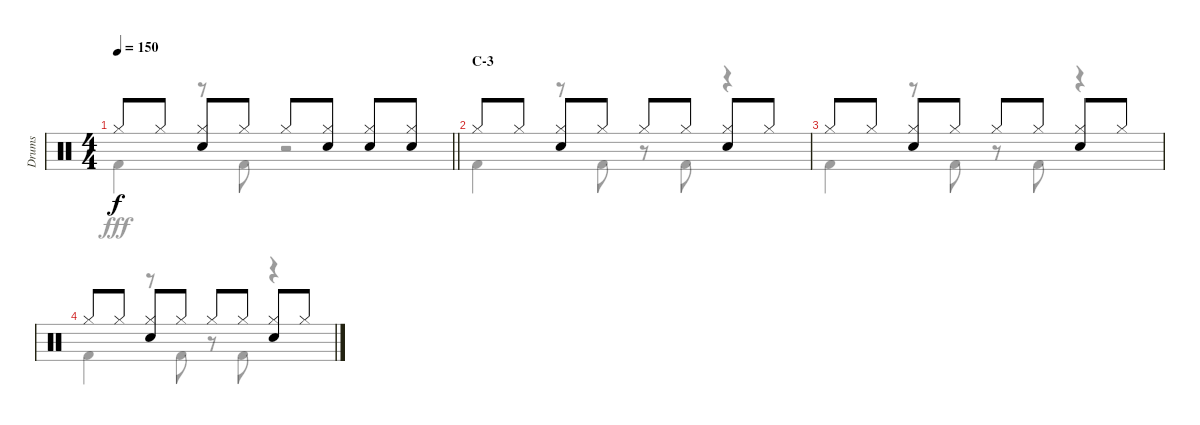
\track ("Drums" "Drums") {instrument percussion}
\staff {score}
\articulation defaults
\voice
\ts (4 4)
\tempo 150
\clef neutral
\barLineRight lightlight
\ks c "Hi-Hat (closed)".8{dy f} "Hi-Hat (closed)".8
("Hi-Hat (closed)" "Electric Snare (hit)").8 "Hi-Hat (closed)".8 "Hi-Hat (closed)".8 ("Hi-Hat (closed)" "Electric Snare (hit)").8 ("Hi-Hat (closed)" "Electric Snare (hit)").8 ("Hi-Hat (closed)" "Electric Snare (hit)").8 |
\section ("" "C-3")
"Hi-Hat (closed)".8 "Hi-Hat (closed)".8 ("Hi-Hat (closed)" "Electric Snare (hit)").8 "Hi-Hat (closed)".8 "Hi-Hat (closed)".8 "Hi-Hat (closed)".8 ("Hi-Hat (closed)" "Electric Snare (hit)").8 "Hi-Hat (closed)".8 |
"Hi-Hat (closed)".8 "Hi-Hat (closed)".8 ("Hi-Hat (closed)" "Electric Snare (hit)").8 "Hi-Hat (closed)".8 "Hi-Hat (closed)".8 "Hi-Hat (closed)".8 ("Hi-Hat (closed)" "Electric Snare (hit)").8 "Hi-Hat (closed)".8 |
"Hi-Hat (closed)".8 "Hi-Hat (closed)".8 ("Hi-Hat (closed)" "Electric Snare (hit)").8 "Hi-Hat (closed)".8 "Hi-Hat (closed)".8 "Hi-Hat (closed)".8 ("Hi-Hat (closed)" "Electric Snare (hit)").8 "Hi-Hat (closed)".8
\voice
\clef neutral
\ottava regular
\simile none
\barLineRight lightlight
\ks c "Kick (hit) 2".4{dy fff}
r.8 "Kick (hit) 2".8 r.2 |
"Kick (hit) 2".4 r.8 "Kick (hit) 2".8 r.8 "Kick (hit) 2".8 r.4 |
"Kick (hit) 2".4 r.8 "Kick (hit) 2".8 r.8 "Kick (hit) 2".8 r.4 |
"Kick (hit) 2".4 r.8 "Kick (hit) 2".8 r.8 "Kick (hit) 2".8 r.4
